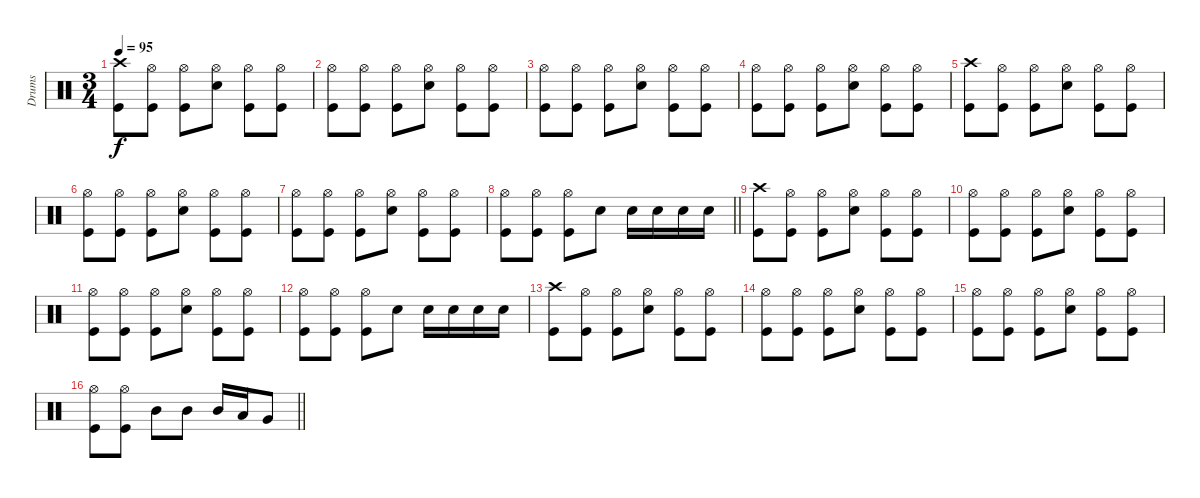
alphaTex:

\track ("Drums" "Drums") {instrument percussion}
\staff {score}
\articulation defaults
\ts (3 4)
\tempo 95
\clef neutral
\ks c
("Crash high (hit)" "Kick (hit)").8{dy f} ("Hi-Hat (open)" "Kick (hit)").8 ("Hi-Hat (open)" "Kick (hit)").8 ("Hi-Hat (open)" "Electric Snare (hit)").8 ("Hi-Hat (open)" "Kick (hit)").8 ("Hi-Hat (open)" "Kick (hit)").8 |
("Hi-Hat (open)" "Kick (hit)").8 ("Hi-Hat (open)" "Kick (hit)").8 ("Hi-Hat (open)" "Kick (hit)").8 ("Hi-Hat (open)" "Electric Snare (hit)").8 ("Hi-Hat (open)" "Kick (hit)").8 ("Hi-Hat (open)" "Kick (hit)").8 |
("Hi-Hat (open)" "Kick (hit)").8 ("Hi-Hat (open)" "Kick (hit)").8 ("Hi-Hat (open)" "Kick (hit)").8 ("Hi-Hat (open)" "Electric Snare (hit)").8 ("Hi-Hat (open)" "Kick (hit)").8 ("Hi-Hat (open)" "Kick (hit)").8 |
("Hi-Hat (open)" "Kick (hit)").8 ("Hi-Hat (open)" "Kick (hit)").8 ("Hi-Hat (open)" "Kick (hit)").8 ("Hi-Hat (open)" "Electric Snare (hit)").8 ("Hi-Hat (open)" "Kick (hit)").8 ("Hi-Hat (open)" "Kick (hit)").8 |
("Crash high (hit)" "Kick (hit)").8 ("Hi-Hat (open)" "Kick (hit)").8 ("Hi-Hat (open)" "Kick (hit)").8 ("Hi-Hat (open)" "Electric Snare (hit)").8 ("Hi-Hat (open)" "Kick (hit)").8 ("Hi-Hat (open)" "Kick (hit)").8 |
("Hi-Hat (open)" "Kick (hit)").8 ("Hi-Hat (open)" "Kick (hit)").8 ("Hi-Hat (open)" "Kick (hit)").8 ("Hi-Hat (open)" "Electric Snare (hit)").8 ("Hi-Hat (open)" "Kick (hit)").8 ("Hi-Hat (open)" "Kick (hit)").8 |
("Hi-Hat (open)" "Kick (hit)").8 ("Hi-Hat (open)" "Kick (hit)").8 ("Hi-Hat (open)" "Kick (hit)").8 ("Hi-Hat (open)" "Electric Snare (hit)").8 ("Hi-Hat (open)" "Kick (hit)").8 ("Hi-Hat (open)" "Kick (hit)").8 |
\barLineRight lightlight
("Hi-Hat (open)" "Kick (hit)").8 ("Hi-Hat (open)" "Kick (hit)").8 ("Hi-Hat (open)" "Kick (hit)").8 "Electric Snare (hit)".8 "Electric Snare (hit)".16 "Electric Snare (hit)".16 "Electric Snare (hit)".16 "Electric Snare (hit)".16 |
\section ("" "")
("Crash high (hit)" "Kick (hit)").8 ("Hi-Hat (open)" "Kick (hit)").8 ("Hi-Hat (open)" "Kick (hit)").8 ("Hi-Hat (open)" "Electric Snare (hit)").8 ("Hi-Hat (open)" "Kick (hit)").8 ("Hi-Hat (open)" "Kick (hit)").8 |
("Hi-Hat (open)" "Kick (hit)").8 ("Hi-Hat (open)" "Kick (hit)").8 ("Hi-Hat (open)" "Kick (hit)").8 ("Hi-Hat (open)" "Electric Snare (hit)").8 ("Hi-Hat (open)" "Kick (hit)").8 ("Hi-Hat (open)" "Kick (hit)").8 |
("Hi-Hat (open)" "Kick (hit)").8 ("Hi-Hat (open)" "Kick (hit)").8 ("Hi-Hat (open)" "Kick (hit)").8 ("Hi-Hat (open)" "Electric Snare (hit)").8 ("Hi-Hat (open)" "Kick (hit)").8 ("Hi-Hat (open)" "Kick (hit)").8 |
("Hi-Hat (open)" "Kick (hit)").8 ("Hi-Hat (open)" "Kick (hit)").8 ("Hi-Hat (open)" "Kick (hit)").8 "Electric Snare (hit)".8 "Electric Snare (hit)".16 "Electric Snare (hit)".16 "Electric Snare (hit)".16 "Electric Snare (hit)".16 |
("Crash high (hit)" "Kick (hit)").8 ("Hi-Hat (open)" "Kick (hit)").8 ("Hi-Hat (open)" "Kick (hit)").8 ("Hi-Hat (open)" "Electric Snare (hit)").8 ("Hi-Hat (open)" "Kick (hit)").8 ("Hi-Hat (open)" "Kick (hit)").8 |
("Hi-Hat (open)" "Kick (hit)").8 ("Hi-Hat (open)" "Kick (hit)").8 ("Hi-Hat (open)" "Kick (hit)").8 ("Hi-Hat (open)" "Electric Snare (hit)").8 ("Hi-Hat (open)" "Kick (hit)").8 ("Hi-Hat (open)" "Kick (hit)").8 |
("Hi-Hat (open)" "Kick (hit)").8 ("Hi-Hat (open)" "Kick (hit)").8 ("Hi-Hat (open)" "Kick (hit)").8 ("Hi-Hat (open)" "Electric Snare (hit)").8 ("Hi-Hat (open)" "Kick (hit)").8 ("Hi-Hat (open)" "Kick (hit)").8 |
\barLineRight lightlight
("Hi-Hat (open)" "Kick (hit)").8 ("Hi-Hat (open)" "Kick (hit)").8 "Mid Tom (hit)".8 "Mid Tom (hit)".8 "Mid Tom (hit)".16 "Low Tom (hit)".16 "Very Low Tom (hit)".8
